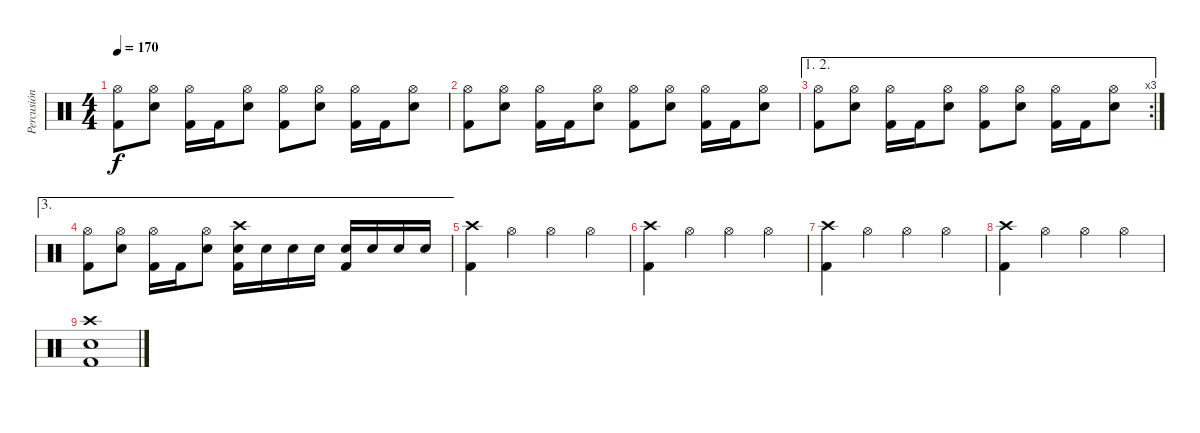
\track ("Percusión" "Percusión") {instrument percussion}
\staff {score}
\articulation defaults
\ts (4 4)
\tempo 170
\clef neutral
\ks c
("Kick (hit) 2" "Hi-Hat (open)").8{dy f} ("Snare (hit) 2" "Hi-Hat (open)").8 ("Kick (hit) 2" "Hi-Hat (open)").16 "Kick (hit) 2".16 ("Snare (hit) 2" "Hi-Hat (open)").8 ("Kick (hit) 2" "Hi-Hat (open)").8 ("Snare (hit) 2" "Hi-Hat (open)").8 ("Kick (hit) 2" "Hi-Hat (open)").16 "Kick (hit) 2".16 ("Snare (hit) 2" "Hi-Hat (open)").8 |
("Kick (hit) 2" "Hi-Hat (open)").8 ("Snare (hit) 2" "Hi-Hat (open)").8 ("Kick (hit) 2" "Hi-Hat (open)").16 "Kick (hit) 2".16 ("Snare (hit) 2" "Hi-Hat (open)").8 ("Kick (hit) 2" "Hi-Hat (open)").8 ("Snare (hit) 2" "Hi-Hat (open)").8 ("Kick (hit) 2" "Hi-Hat (open)").16 "Kick (hit) 2".16 ("Snare (hit) 2" "Hi-Hat (open)").8 |
\ae (1 2)
\rc 3
("Kick (hit) 2" "Hi-Hat (open)").8 ("Snare (hit) 2" "Hi-Hat (open)").8 ("Kick (hit) 2" "Hi-Hat (open)").16 "Kick (hit) 2".16 ("Snare (hit) 2" "Hi-Hat (open)").8 ("Kick (hit) 2" "Hi-Hat (open)").8 ("Snare (hit) 2" "Hi-Hat (open)").8 ("Kick (hit) 2" "Hi-Hat (open)").16 "Kick (hit) 2".16 ("Snare (hit) 2" "Hi-Hat (open)").8 |
\ae 3
("Kick (hit) 2" "Hi-Hat (open)").8 ("Snare (hit) 2" "Hi-Hat (open)").8 ("Kick (hit) 2" "Hi-Hat (open)").16 "Kick (hit) 2".16 ("Snare (hit) 2" "Hi-Hat (open)").8 ("Kick (hit) 2" "Snare (hit) 2" "Crash high (hit)").16 "Snare (hit) 2".16 "Snare (hit) 2".16 "Snare (hit) 2".16 ("Kick (hit) 2" "Snare (hit) 2").16 "Snare (hit) 2".16 "Snare (hit) 2".16 "Snare (hit) 2".16 |
("Kick (hit) 2" "Crash high (hit)").4 "Hi-Hat (open)".4 "Hi-Hat (open)".4 "Hi-Hat (open)".4 |
("Kick (hit) 2" "Crash high (hit)").4 "Hi-Hat (open)".4 "Hi-Hat (open)".4 "Hi-Hat (open)".4 |
("Kick (hit) 2" "Crash high (hit)").4 "Hi-Hat (open)".4 "Hi-Hat (open)".4 "Hi-Hat (open)".4 |
("Kick (hit) 2" "Crash high (hit)").4 "Hi-Hat (open)".4 "Hi-Hat (open)".4 "Hi-Hat (open)".4 |
("Kick (hit) 2" "Snare (hit) 2" "Crash high (hit)").1
